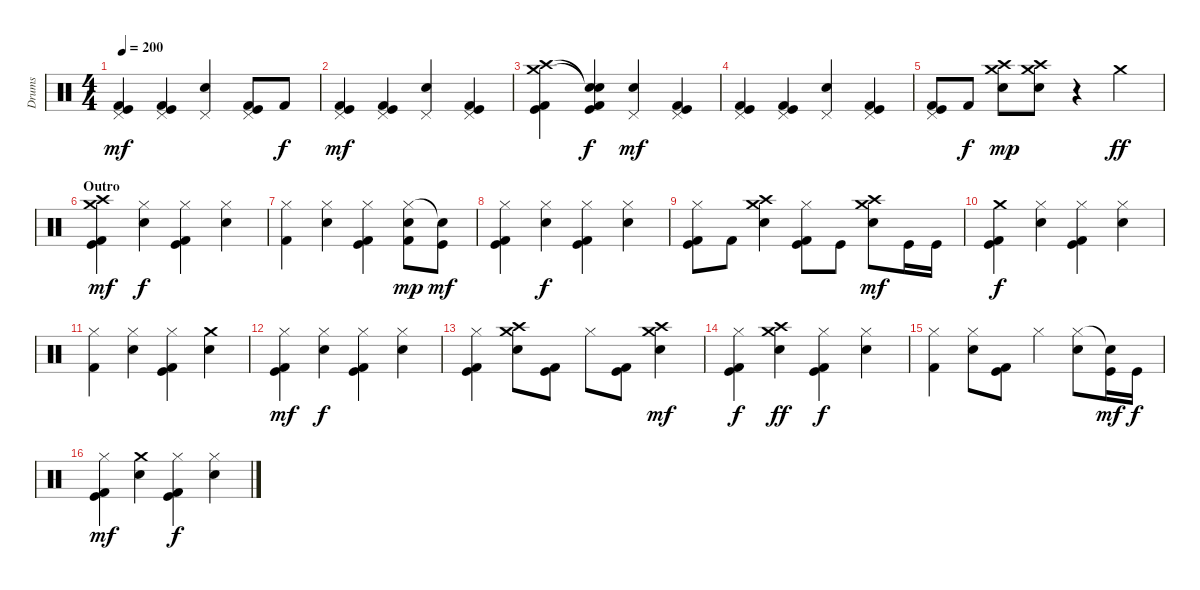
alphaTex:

\track ("Drums" "Drums") {instrument percussion}
\staff {score}
\articulation defaults
\ts (4 4)
\tempo 200
\clef neutral
\ks c
("Pedal Hi-Hat (hit)" "Kick (hit)" "Kick (hit) 2").4{dy mf} ("Pedal Hi-Hat (hit)" "Kick (hit)" "Kick (hit) 2").4 ("Pedal Hi-Hat (hit)" "Snare (hit) 2").4 ("Pedal Hi-Hat (hit)" "Kick (hit)" "Kick (hit) 2").8 "Kick (hit) 2".8{dy f} |
("Pedal Hi-Hat (hit)" "Kick (hit)" "Kick (hit) 2").4{dy mf} ("Pedal Hi-Hat (hit)" "Kick (hit)" "Kick (hit) 2").4 ("Pedal Hi-Hat (hit)" "Snare (hit) 2").4 ("Pedal Hi-Hat (hit)" "Kick (hit)" "Kick (hit) 2").4 |
("Crash high (hit)" "Crash medium (hit)" "Kick (hit)" "Kick (hit) 2").4 ("Snare (hit)"{t} "Snare (hit)"{t} "Kick (hit)" "Kick (hit) 2").4{dy f} ("Pedal Hi-Hat (hit)" "Snare (hit) 2").4{dy mf} ("Pedal Hi-Hat (hit)" "Kick (hit)" "Kick (hit) 2").4 |
("Pedal Hi-Hat (hit)" "Kick (hit)" "Kick (hit) 2").4 ("Pedal Hi-Hat (hit)" "Kick (hit)" "Kick (hit) 2").4 ("Pedal Hi-Hat (hit)" "Snare (hit) 2").4 ("Pedal Hi-Hat (hit)" "Kick (hit)" "Kick (hit) 2").4 |
("Pedal Hi-Hat (hit)" "Kick (hit)" "Kick (hit) 2").8 "Kick (hit) 2".8{dy f} ("Crash high (hit)" "Crash medium (hit)" "Snare (hit) 2").8{dy mp} ("Crash high (hit)" "Crash medium (hit)" "Snare (hit) 2").8 r.4 "Crash medium (hit)".4{dy ff} |
\section ("" "Outro")
("Crash high (hit)" "Crash medium (hit)" "Kick (hit)" "Kick (hit) 2").4{dy mf} ("Hi-Hat (closed)" "Snare (hit) 2").4{dy f} ("Hi-Hat (closed)" "Kick (hit)" "Kick (hit) 2").4 ("Hi-Hat (closed)" "Snare (hit) 2").4 |
("Hi-Hat (closed)" "Kick (hit) 2").4 ("Hi-Hat (closed)" "Snare (hit) 2").4 ("Hi-Hat (closed)" "Kick (hit)" "Kick (hit) 2").4 ("Hi-Hat (closed)" "Snare (hit) 2" "Kick (hit) 2").8{dy mp} ("Snare (hit)"{t} "Kick (hit)").8{dy mf} |
("Hi-Hat (closed)" "Kick (hit)" "Kick (hit) 2").4 ("Hi-Hat (closed)" "Snare (hit) 2").4{dy f} ("Hi-Hat (closed)" "Kick (hit)" "Kick (hit) 2").4 ("Hi-Hat (closed)" "Snare (hit) 2").4 |
("Hi-Hat (closed)" "Kick (hit)" "Kick (hit) 2").8 "Kick (hit) 2".8 ("Crash high (hit)" "Crash medium (hit)" "Snare (hit) 2").4 ("Hi-Hat (closed)" "Kick (hit)" "Kick (hit) 2").8 "Kick (hit)".8 ("Crash high (hit)" "Crash medium (hit)" "Snare (hit) 2").8{dy mf} "Kick (hit)".16 "Kick (hit)".16 |
("Crash medium (hit)" "Kick (hit)" "Kick (hit) 2").4{dy f} ("Hi-Hat (closed)" "Snare (hit) 2").4 ("Hi-Hat (closed)" "Kick (hit)" "Kick (hit) 2").4 ("Hi-Hat (closed)" "Snare (hit) 2").4 |
("Hi-Hat (closed)" "Kick (hit) 2").4 ("Hi-Hat (closed)" "Snare (hit) 2").4 ("Hi-Hat (closed)" "Kick (hit)" "Kick (hit) 2").4 ("Crash medium (hit)" "Snare (hit) 2").4 |
("Hi-Hat (closed)" "Kick (hit)" "Kick (hit) 2").4{dy mf} ("Hi-Hat (closed)" "Snare (hit) 2").4{dy f} ("Hi-Hat (closed)" "Kick (hit)" "Kick (hit) 2").4 ("Hi-Hat (closed)" "Snare (hit) 2").4 |
("Hi-Hat (closed)" "Kick (hit)" "Kick (hit) 2").4 ("Crash high (hit)" "Crash medium (hit)" "Snare (hit) 2").8 ("Kick (hit)" "Kick (hit) 2").8 "Hi-Hat (closed)".8 ("Kick (hit)" "Kick (hit) 2").8 ("Crash high (hit)" "Crash medium (hit)" "Snare (hit) 2").4{dy mf} |
("Hi-Hat (closed)" "Kick (hit)" "Kick (hit) 2").4{dy f} ("Crash high (hit)" "Crash medium (hit)" "Snare (hit) 2").4{dy ff} ("Hi-Hat (closed)" "Kick (hit)" "Kick (hit) 2").4{dy f} ("Hi-Hat (closed)" "Snare (hit) 2").4 |
("Hi-Hat (closed)" "Kick (hit) 2").4 ("Hi-Hat (closed)" "Snare (hit) 2").8 ("Kick (hit)" "Kick (hit) 2").8 "Hi-Hat (closed)".4 ("Hi-Hat (closed)" "Snare (hit) 2").8 ("Snare (hit)"{t} "Kick (hit)").16{dy mf} "Kick (hit)".16{dy f} |
("Hi-Hat (closed)" "Kick (hit)" "Kick (hit) 2").4{dy mf} ("Crash medium (hit)" "Snare (hit) 2").4 ("Hi-Hat (closed)" "Kick (hit)" "Kick (hit) 2").4{dy f} ("Hi-Hat (closed)" "Snare (hit) 2").4
